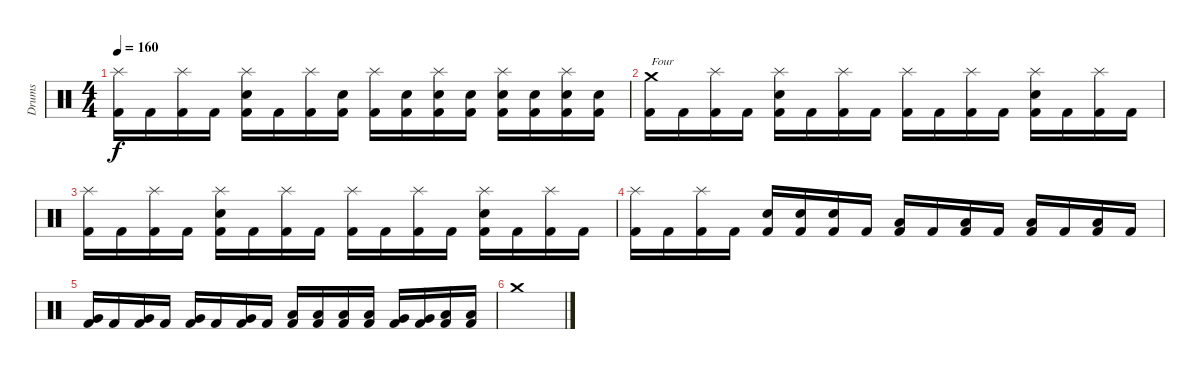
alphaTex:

\track ("Drums" "Drums") {instrument percussion}
\staff {score}
\articulation defaults
\ts (4 4)
\tempo 160
\clef neutral
\ks c
("Splash (hit)" "Kick (hit) 2").16{dy f} "Kick (hit) 2".16 ("Splash (hit)" "Kick (hit) 2").16 "Kick (hit) 2".16 ("Splash (hit)" "Snare (hit) 2" "Kick (hit) 2").16 "Kick (hit) 2".16 ("Splash (hit)" "Kick (hit) 2").16 ("Snare (hit) 2" "Kick (hit) 2").16 ("Splash (hit)" "Kick (hit) 2").16 ("Snare (hit) 2" "Kick (hit) 2").16 ("Splash (hit)" "Snare (hit) 2" "Kick (hit) 2").16 ("Snare (hit) 2" "Kick (hit) 2").16 ("Splash (hit)" "Snare (hit) 2" "Kick (hit) 2").16 ("Snare (hit) 2" "Kick (hit) 2").16 ("Splash (hit)" "Snare (hit) 2" "Kick (hit) 2").16 ("Snare (hit) 2" "Kick (hit) 2").16 |
("Crash medium (hit)" "Kick (hit) 2").16{txt "Four"} "Kick (hit) 2".16 ("Splash (hit)" "Kick (hit) 2").16 "Kick (hit) 2".16 ("Splash (hit)" "Snare (hit) 2" "Kick (hit) 2").16 "Kick (hit) 2".16 ("Splash (hit)" "Kick (hit) 2").16 "Kick (hit) 2".16 ("Splash (hit)" "Kick (hit) 2").16 "Kick (hit) 2".16 ("Splash (hit)" "Kick (hit) 2").16 "Kick (hit) 2".16 ("Splash (hit)" "Snare (hit) 2" "Kick (hit) 2").16 "Kick (hit) 2".16 ("Splash (hit)" "Kick (hit) 2").16 "Kick (hit) 2".16 |
("Splash (hit)" "Kick (hit) 2").16 "Kick (hit) 2".16 ("Splash (hit)" "Kick (hit) 2").16 "Kick (hit) 2".16 ("Splash (hit)" "Snare (hit) 2" "Kick (hit) 2").16 "Kick (hit) 2".16 ("Splash (hit)" "Kick (hit) 2").16 "Kick (hit) 2".16 ("Splash (hit)" "Kick (hit) 2").16 "Kick (hit) 2".16 ("Splash (hit)" "Kick (hit) 2").16 "Kick (hit) 2".16 ("Splash (hit)" "Snare (hit) 2" "Kick (hit) 2").16 "Kick (hit) 2".16 ("Splash (hit)" "Kick (hit) 2").16 "Kick (hit) 2".16 |
("Splash (hit)" "Kick (hit) 2").16 "Kick (hit) 2".16 ("Splash (hit)" "Kick (hit) 2").16 "Kick (hit) 2".16 ("Snare (hit) 2" "Kick (hit) 2").16 ("Snare (hit) 2" "Kick (hit) 2").16 ("Snare (hit) 2" "Kick (hit) 2").16 "Kick (hit) 2".16 ("Low Tom (hit)" "Kick (hit) 2").16 "Kick (hit) 2".16 ("Low Tom (hit)" "Kick (hit) 2").16 "Kick (hit) 2".16 ("Low Tom (hit)" "Kick (hit) 2").16 "Kick (hit) 2".16 ("Low Tom (hit)" "Kick (hit) 2").16 "Kick (hit) 2".16 |
("Very Low Tom (hit)" "Kick (hit) 2").16 "Kick (hit) 2".16 ("Very Low Tom (hit)" "Kick (hit) 2").16 "Kick (hit) 2".16 ("Very Low Tom (hit)" "Kick (hit) 2").16 "Kick (hit) 2".16 ("Very Low Tom (hit)" "Kick (hit) 2").16 "Kick (hit) 2".16 ("Low Tom (hit)" "Kick (hit) 2").16 ("Low Tom (hit)" "Kick (hit) 2").16 ("Low Tom (hit)" "Kick (hit) 2").16 ("Low Tom (hit)" "Kick (hit) 2").16 ("Very Low Tom (hit)" "Kick (hit) 2").16 ("Very Low Tom (hit)" "Kick (hit) 2").16 ("Low Floor Tom (hit)" "Kick (hit) 2").16 ("Low Floor Tom (hit)" "Kick (hit) 2").16 |
"Crash medium (hit)".1
